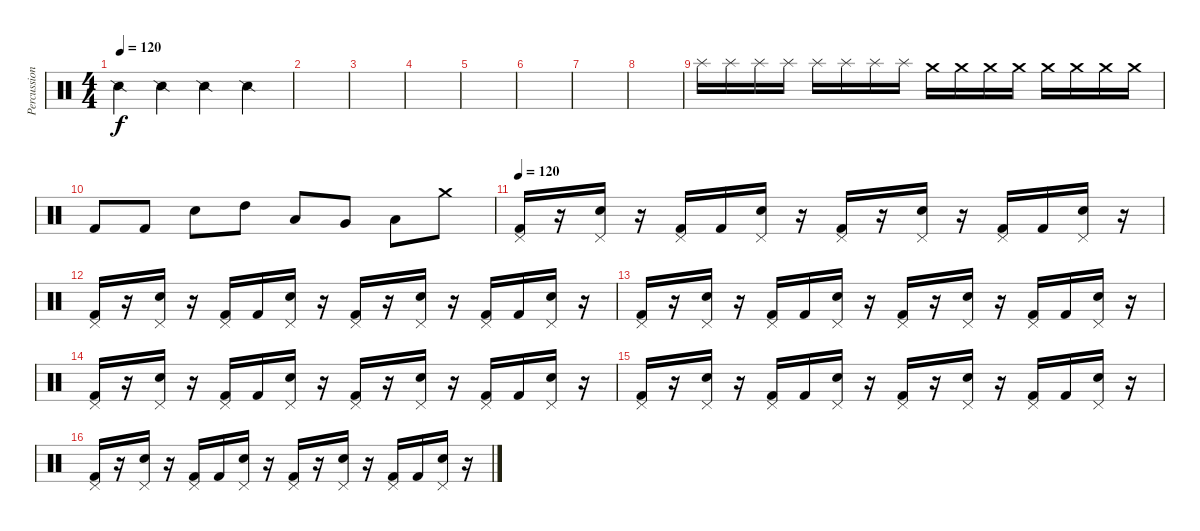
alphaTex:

\track ("Percussion" "Percussion") {instrument percussion}
\staff {score}
\articulation defaults
\ts (4 4)
\tempo 120
\tempo 180
\tempo 120
\clef neutral
\ks c "Snare (side stick) 2".4{dy f} "Snare (side stick) 2".4 "Snare (side stick) 2".4 "Snare (side stick) 2".4
|
|
|
|
|
|
|
|
"Splash (hit)".16 "Splash (hit)".16 "Splash (hit)".16 "Splash (hit)".16 "Splash (hit)".16 "Splash (hit)".16 "Splash (hit)".16 "Splash (hit)".16 "Crash medium (hit)".16 "Crash medium (hit)".16 "Crash medium (hit)".16 "Crash medium (hit)".16 "Crash medium (hit)".16 "Crash medium (hit)".16 "Crash medium (hit)".16 "Crash medium (hit)".16 |
"Kick (hit) 2".8 "Kick (hit) 2".8 "Electric Snare (hit)".8 "High Tom (hit)".8 "Low Tom (hit)".8 "Very Low Tom (hit)".8 "Low Floor Tom (hit)".8 "Crash medium (hit)".8 |
\tempo 120
("Pedal Hi-Hat (hit)" "Kick (hit) 2").16 r.16 ("Pedal Hi-Hat (hit)" "Electric Snare (hit)").16 r.16 ("Pedal Hi-Hat (hit)" "Kick (hit) 2").16 "Kick (hit) 2".16 ("Pedal Hi-Hat (hit)" "Electric Snare (hit)").16 r.16 ("Pedal Hi-Hat (hit)" "Kick (hit) 2").16 r.16 ("Pedal Hi-Hat (hit)" "Electric Snare (hit)").16 r.16 ("Pedal Hi-Hat (hit)" "Kick (hit) 2").16 "Kick (hit) 2".16 ("Pedal Hi-Hat (hit)" "Electric Snare (hit)").16 r.16 |
("Pedal Hi-Hat (hit)" "Kick (hit) 2").16 r.16 ("Pedal Hi-Hat (hit)" "Electric Snare (hit)").16 r.16 ("Pedal Hi-Hat (hit)" "Kick (hit) 2").16 "Kick (hit) 2".16 ("Pedal Hi-Hat (hit)" "Electric Snare (hit)").16 r.16 ("Pedal Hi-Hat (hit)" "Kick (hit) 2").16 r.16 ("Pedal Hi-Hat (hit)" "Electric Snare (hit)").16 r.16 ("Pedal Hi-Hat (hit)" "Kick (hit) 2").16 "Kick (hit) 2".16 ("Pedal Hi-Hat (hit)" "Electric Snare (hit)").16 r.16 |
("Pedal Hi-Hat (hit)" "Kick (hit) 2").16 r.16 ("Pedal Hi-Hat (hit)" "Electric Snare (hit)").16 r.16 ("Pedal Hi-Hat (hit)" "Kick (hit) 2").16 "Kick (hit) 2".16 ("Pedal Hi-Hat (hit)" "Electric Snare (hit)").16 r.16 ("Pedal Hi-Hat (hit)" "Kick (hit) 2").16 r.16 ("Pedal Hi-Hat (hit)" "Electric Snare (hit)").16 r.16 ("Pedal Hi-Hat (hit)" "Kick (hit) 2").16 "Kick (hit) 2".16 ("Pedal Hi-Hat (hit)" "Electric Snare (hit)").16 r.16 |
("Pedal Hi-Hat (hit)" "Kick (hit) 2").16 r.16 ("Pedal Hi-Hat (hit)" "Electric Snare (hit)").16 r.16 ("Pedal Hi-Hat (hit)" "Kick (hit) 2").16 "Kick (hit) 2".16 ("Pedal Hi-Hat (hit)" "Electric Snare (hit)").16 r.16 ("Pedal Hi-Hat (hit)" "Kick (hit) 2").16 r.16 ("Pedal Hi-Hat (hit)" "Electric Snare (hit)").16 r.16 ("Pedal Hi-Hat (hit)" "Kick (hit) 2").16 "Kick (hit) 2".16 ("Pedal Hi-Hat (hit)" "Electric Snare (hit)").16 r.16 |
("Pedal Hi-Hat (hit)" "Kick (hit) 2").16 r.16 ("Pedal Hi-Hat (hit)" "Electric Snare (hit)").16 r.16 ("Pedal Hi-Hat (hit)" "Kick (hit) 2").16 "Kick (hit) 2".16 ("Pedal Hi-Hat (hit)" "Electric Snare (hit)").16 r.16 ("Pedal Hi-Hat (hit)" "Kick (hit) 2").16 r.16 ("Pedal Hi-Hat (hit)" "Electric Snare (hit)").16 r.16 ("Pedal Hi-Hat (hit)" "Kick (hit) 2").16 "Kick (hit) 2".16 ("Pedal Hi-Hat (hit)" "Electric Snare (hit)").16 r.16 |
("Pedal Hi-Hat (hit)" "Kick (hit) 2").16 r.16 ("Pedal Hi-Hat (hit)" "Electric Snare (hit)").16 r.16 ("Pedal Hi-Hat (hit)" "Kick (hit) 2").16 "Kick (hit) 2".16 ("Pedal Hi-Hat (hit)" "Electric Snare (hit)").16 r.16 ("Pedal Hi-Hat (hit)" "Kick (hit) 2").16 r.16 ("Pedal Hi-Hat (hit)" "Electric Snare (hit)").16 r.16 ("Pedal Hi-Hat (hit)" "Kick (hit) 2").16 "Kick (hit) 2".16 ("Pedal Hi-Hat (hit)" "Electric Snare (hit)").16 r.16
